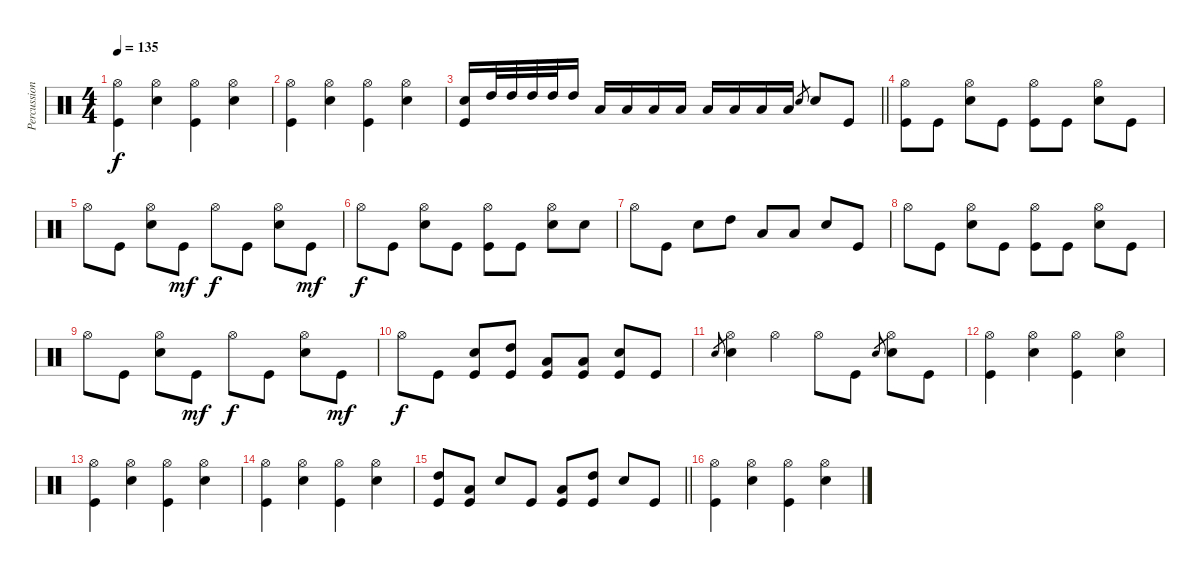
\track ("Percussion" "Percussion") {instrument percussion}
\staff {score}
\articulation defaults
\ts (4 4)
\tempo 135
\clef neutral
\ks c
("Hi-Hat (open)" "Kick (hit)").4{dy f} ("Hi-Hat (open)" "Electric Snare (hit)").4 ("Hi-Hat (open)" "Kick (hit)").4 ("Hi-Hat (open)" "Electric Snare (hit)").4 |
("Hi-Hat (open)" "Kick (hit)").4 ("Hi-Hat (open)" "Electric Snare (hit)").4 ("Hi-Hat (open)" "Kick (hit)").4 ("Hi-Hat (open)" "Electric Snare (hit)").4 |
\barLineRight lightlight
("Electric Snare (hit)" "Kick (hit)").16 "High Tom (hit)".32 "High Tom (hit)".32 "High Tom (hit)".32 "High Tom (hit)".32 "High Tom (hit)".16 "Low Tom (hit)".16 "Low Tom (hit)".16 "Low Tom (hit)".16 "Low Tom (hit)".16 "Low Floor Tom (hit)".16 "Low Floor Tom (hit)".16 "Low Floor Tom (hit)".16 "Low Floor Tom (hit)".16 "Electric Snare (hit)".8{gr} "Electric Snare (hit)".8 "Kick (hit)".8 |
("Hi-Hat (open)" "Kick (hit)").8 "Kick (hit)".8 ("Hi-Hat (open)" "Electric Snare (hit)").8 "Kick (hit)".8 ("Hi-Hat (open)" "Kick (hit)").8 "Kick (hit)".8 ("Hi-Hat (open)" "Electric Snare (hit)").8 "Kick (hit)".8 |
"Hi-Hat (open)".8 "Kick (hit)".8 ("Hi-Hat (open)" "Electric Snare (hit)").8 "Kick (hit)".8{dy mf} "Hi-Hat (open)".8{dy f} "Kick (hit)".8 ("Hi-Hat (open)" "Electric Snare (hit)").8 "Kick (hit)".8{dy mf} |
"Hi-Hat (open)".8{dy f} "Kick (hit)".8 ("Hi-Hat (open)" "Electric Snare (hit)").8 "Kick (hit)".8 ("Hi-Hat (open)" "Kick (hit)").8 "Kick (hit)".8 ("Hi-Hat (open)" "Electric Snare (hit)").8 "Electric Snare (hit)".8 |
"Hi-Hat (open)".8 "Kick (hit)".8 "Electric Snare (hit)".8 "High Tom (hit)".8 "Low Tom (hit)".8 "Low Floor Tom (hit)".8 "Electric Snare (hit)".8 "Kick (hit)".8 |
"Hi-Hat (open)".8 "Kick (hit)".8 ("Hi-Hat (open)" "Electric Snare (hit)").8 "Kick (hit)".8 ("Hi-Hat (open)" "Kick (hit)").8 "Kick (hit)".8 ("Hi-Hat (open)" "Electric Snare (hit)").8 "Kick (hit)".8 |
"Hi-Hat (open)".8 "Kick (hit)".8 ("Hi-Hat (open)" "Electric Snare (hit)").8 "Kick (hit)".8{dy mf} "Hi-Hat (open)".8{dy f} "Kick (hit)".8 ("Hi-Hat (open)" "Electric Snare (hit)").8 "Kick (hit)".8{dy mf} |
"Hi-Hat (open)".8{dy f} "Kick (hit)".8 ("Electric Snare (hit)" "Kick (hit)").8 ("High Tom (hit)" "Kick (hit)").8 ("Low Tom (hit)" "Kick (hit)").8 ("Low Floor Tom (hit)" "Kick (hit)").8 ("Electric Snare (hit)" "Kick (hit)").8 "Kick (hit)".8 |
"Electric Snare (hit)".8{gr} ("Hi-Hat (open)" "Electric Snare (hit)").4 "Hi-Hat (open)".4 "Hi-Hat (open)".8 "Kick (hit)".8 "Electric Snare (hit)".8{gr} ("Hi-Hat (open)" "Electric Snare (hit)").8 "Kick (hit)".8 |
("Hi-Hat (open)" "Kick (hit)").4 ("Hi-Hat (open)" "Electric Snare (hit)").4 ("Hi-Hat (open)" "Kick (hit)").4 ("Hi-Hat (open)" "Electric Snare (hit)").4 |
("Hi-Hat (open)" "Kick (hit)").4 ("Hi-Hat (open)" "Electric Snare (hit)").4 ("Hi-Hat (open)" "Kick (hit)").4 ("Hi-Hat (open)" "Electric Snare (hit)").4 |
("Hi-Hat (open)" "Kick (hit)").4 ("Hi-Hat (open)" "Electric Snare (hit)").4 ("Hi-Hat (open)" "Kick (hit)").4 ("Hi-Hat (open)" "Electric Snare (hit)").4 |
\barLineRight lightlight
("High Tom (hit)" "Kick (hit)").8 ("Low Tom (hit)" "Kick (hit)").8 "Electric Snare (hit)".8 "Kick (hit)".8 ("Low Tom (hit)" "Kick (hit)").8 ("High Tom (hit)" "Kick (hit)").8 "Electric Snare (hit)".8 "Kick (hit)".8 |
("Hi-Hat (open)" "Kick (hit)").4 ("Hi-Hat (open)" "Electric Snare (hit)").4 ("Hi-Hat (open)" "Kick (hit)").4 ("Hi-Hat (open)" "Electric Snare (hit)").4
